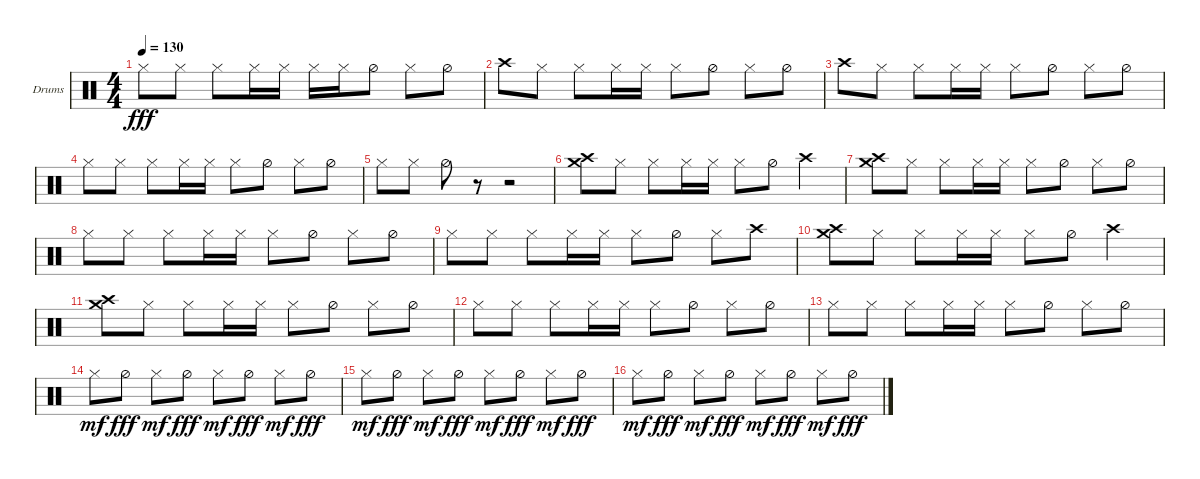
\defaultSystemsLayout 4
\bracketExtendMode groupsimilarinstruments
\firstSystemTrackNameOrientation horizontal
\otherSystemsTrackNameOrientation horizontal
\track ("Helders" "Drums") {instrument percussion}
\staff {score}
\articulation defaults
\ts (4 4)
\tempo 130
\clef neutral
\ks c "Hi-Hat (closed)".8{dy fff} "Hi-Hat (closed)".8 "Hi-Hat (closed)".8 "Hi-Hat (closed)".16 "Hi-Hat (closed)".16 "Hi-Hat (closed)".16 "Hi-Hat (closed)".16 "Hi-Hat (half)".8 "Hi-Hat (closed)".8 "Hi-Hat (half)".8
|
"Crash high (hit)".8 "Hi-Hat (closed)".8 "Hi-Hat (closed)".8 "Hi-Hat (closed)".16 "Hi-Hat (closed)".16 "Hi-Hat (closed)".8 "Hi-Hat (half)".8 "Hi-Hat (closed)".8 "Hi-Hat (half)".8 |
"Crash high (hit)".8 "Hi-Hat (closed)".8 "Hi-Hat (closed)".8 "Hi-Hat (closed)".16 "Hi-Hat (closed)".16 "Hi-Hat (closed)".8 "Hi-Hat (half)".8 "Hi-Hat (closed)".8 "Hi-Hat (half)".8 |
"Hi-Hat (closed)".8 "Hi-Hat (closed)".8 "Hi-Hat (closed)".8 "Hi-Hat (closed)".16 "Hi-Hat (closed)".16 "Hi-Hat (closed)".8 "Hi-Hat (half)".8 "Hi-Hat (closed)".8 "Hi-Hat (half)".8 |
"Hi-Hat (closed)".8 "Hi-Hat (closed)".8 "Hi-Hat (half)".8 r.8 r.2 |
("Crash high (hit)" "Crash medium (hit)").8 "Hi-Hat (closed)".8 "Hi-Hat (closed)".8 "Hi-Hat (closed)".16 "Hi-Hat (closed)".16 "Hi-Hat (closed)".8 "Hi-Hat (half)".8 "Crash high (hit)".4 |
("Crash high (hit)" "Crash medium (hit)").8 "Hi-Hat (closed)".8 "Hi-Hat (closed)".8 "Hi-Hat (closed)".16 "Hi-Hat (closed)".16 "Hi-Hat (closed)".8 "Hi-Hat (half)".8 "Hi-Hat (closed)".8 "Hi-Hat (half)".8 |
"Hi-Hat (closed)".8 "Hi-Hat (closed)".8 "Hi-Hat (closed)".8 "Hi-Hat (closed)".16 "Hi-Hat (closed)".16 "Hi-Hat (closed)".8 "Hi-Hat (half)".8 "Hi-Hat (closed)".8 "Hi-Hat (half)".8 |
"Hi-Hat (closed)".8 "Hi-Hat (closed)".8 "Hi-Hat (closed)".8 "Hi-Hat (closed)".16 "Hi-Hat (closed)".16 "Hi-Hat (closed)".8 "Hi-Hat (half)".8 "Hi-Hat (closed)".8 "Crash high (hit)".8 |
("Crash high (hit)" "Crash medium (hit)").8 "Hi-Hat (closed)".8 "Hi-Hat (closed)".8 "Hi-Hat (closed)".16 "Hi-Hat (closed)".16 "Hi-Hat (closed)".8 "Hi-Hat (half)".8 "Crash high (hit)".4 |
("Crash high (hit)" "Crash medium (hit)").8 "Hi-Hat (closed)".8 "Hi-Hat (closed)".8 "Hi-Hat (closed)".16 "Hi-Hat (closed)".16 "Hi-Hat (closed)".8 "Hi-Hat (half)".8 "Hi-Hat (closed)".8 "Hi-Hat (half)".8 |
"Hi-Hat (closed)".8 "Hi-Hat (closed)".8 "Hi-Hat (closed)".8 "Hi-Hat (closed)".16 "Hi-Hat (closed)".16 "Hi-Hat (closed)".8 "Hi-Hat (half)".8 "Hi-Hat (closed)".8 "Hi-Hat (half)".8 |
"Hi-Hat (closed)".8 "Hi-Hat (closed)".8 "Hi-Hat (closed)".8 "Hi-Hat (closed)".16 "Hi-Hat (closed)".16 "Hi-Hat (closed)".8 "Hi-Hat (half)".8 "Hi-Hat (closed)".8 "Hi-Hat (half)".8 |
"Hi-Hat (closed)".8{dy mf} "Hi-Hat (half)".8{dy fff} "Hi-Hat (closed)".8{dy mf} "Hi-Hat (half)".8{dy fff} "Hi-Hat (closed)".8{dy mf} "Hi-Hat (half)".8{dy fff} "Hi-Hat (closed)".8{dy mf} "Hi-Hat (half)".8{dy fff} |
"Hi-Hat (closed)".8{dy mf} "Hi-Hat (half)".8{dy fff} "Hi-Hat (closed)".8{dy mf} "Hi-Hat (half)".8{dy fff} "Hi-Hat (closed)".8{dy mf} "Hi-Hat (half)".8{dy fff} "Hi-Hat (closed)".8{dy mf} "Hi-Hat (half)".8{dy fff} |
"Hi-Hat (closed)".8{dy mf} "Hi-Hat (half)".8{dy fff} "Hi-Hat (closed)".8{dy mf} "Hi-Hat (half)".8{dy fff} "Hi-Hat (closed)".8{dy mf} "Hi-Hat (half)".8{dy fff} "Hi-Hat (closed)".8{dy mf} "Hi-Hat (half)".8{dy fff}
